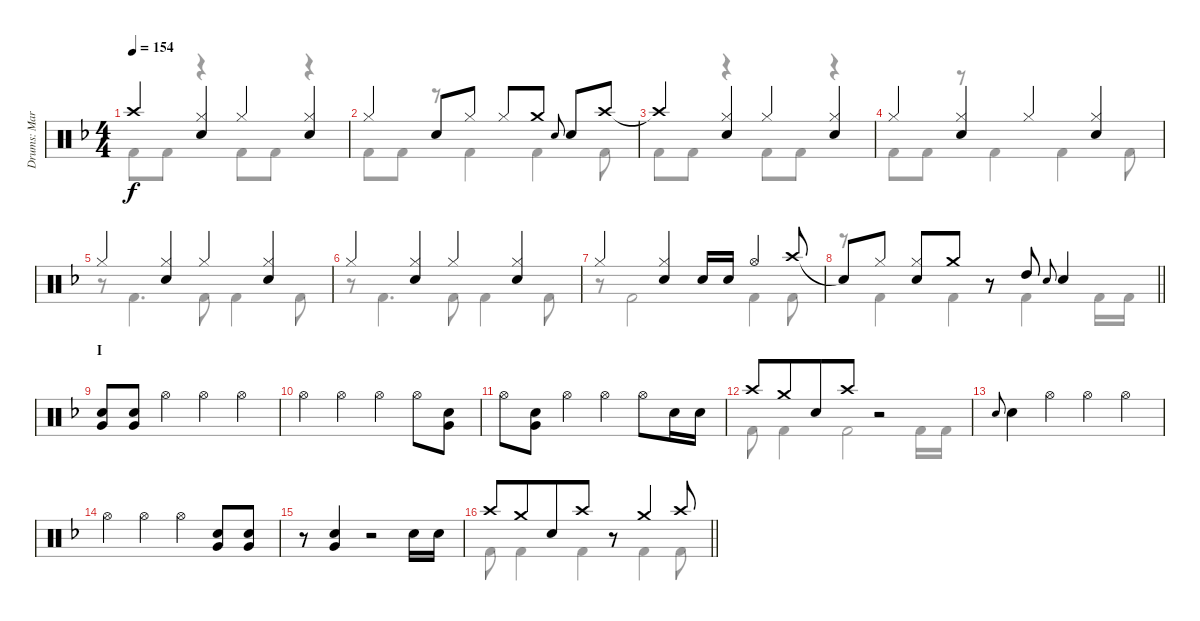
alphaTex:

\track ("Drums: Mark" "Drums: Mar") {instrument percussion}
\staff {score}
\articulation defaults
\voice
\ts (4 4)
\tempo 154
\clef neutral
\ks f "Crash high (hit)".4{dy f}
("Hi-Hat (closed)" "Snare (hit) 2").4 "Hi-Hat (closed)".4 ("Hi-Hat (closed)" "Snare (hit) 2").4 |
"Hi-Hat (closed)".4 "Snare (hit) 2".8{beam merge} "Hi-Hat (closed)".8 "Hi-Hat (closed)".8 "Crash medium (hit)".8 "Electric Snare (hit)".8{gr onbeat beam merge} "Snare (hit) 2".8 "Crash high (hit)".8 |
"Crash high (hit)"{t}.4 ("Hi-Hat (closed)" "Snare (hit) 2").4 "Hi-Hat (closed)".4 ("Hi-Hat (closed)" "Snare (hit) 2").4 |
"Hi-Hat (closed)".4 ("Hi-Hat (closed)" "Snare (hit) 2").4 "Hi-Hat (closed)".4 ("Hi-Hat (closed)" "Snare (hit) 2").4 |
"Hi-Hat (closed)".4 ("Hi-Hat (closed)" "Snare (hit) 2").4 "Hi-Hat (closed)".4 ("Hi-Hat (closed)" "Snare (hit) 2").4 |
"Hi-Hat (closed)".4 ("Hi-Hat (closed)" "Snare (hit) 2").4 "Hi-Hat (closed)".4 ("Hi-Hat (closed)" "Snare (hit) 2").4 |
"Hi-Hat (closed)".4 ("Hi-Hat (closed)" "Snare (hit) 2").4 "Snare (hit) 2".16 "Snare (hit) 2".16 "Hi-Hat (open)".4 "Crash high (hit)".8 |
\barLineRight lightlight "Snare (hit)"{t}.8 "Hi-Hat (closed)".8
("Hi-Hat (closed)" "Snare (hit) 2").8 "Crash medium (hit)".8 r.8 "High Tom (hit)".8 "Electric Snare (hit)".8{gr onbeat} "Snare (hit) 2".4 |
\section ("" "I")
("Snare (hit) 2" "Very Low Tom (hit)").8 ("Snare (hit) 2" "Very Low Tom (hit)").8 "Hi-Hat (open)".4 "Hi-Hat (open)".4 "Hi-Hat (open)".4 |
"Hi-Hat (open)".4 "Hi-Hat (open)".4 "Hi-Hat (open)".4 "Hi-Hat (open)".8 ("Snare (hit) 2" "Very Low Tom (hit)").8 |
"Hi-Hat (open)".8 ("Snare (hit) 2" "Very Low Tom (hit)").8 "Hi-Hat (open)".4 "Hi-Hat (open)".4 "Hi-Hat (open)".8 "Snare (hit) 2".16 "Snare (hit) 2".16 |
"Crash high (hit)".8 "Crash medium (hit)".8{beam merge} "Snare (hit) 2".8 "Crash high (hit)".8 r.2 |
"Electric Snare (hit)".8{gr onbeat} "Snare (hit) 2".4 "Hi-Hat (open)".4 "Hi-Hat (open)".4 "Hi-Hat (open)".4 |
"Hi-Hat (open)".4 "Hi-Hat (open)".4 "Hi-Hat (open)".4 ("Snare (hit) 2" "Very Low Tom (hit)").8 ("Snare (hit) 2" "Very Low Tom (hit)").8 |
r.8 ("Snare (hit) 2" "Very Low Tom (hit)").4 r.2 "Snare (hit) 2".16 "Snare (hit) 2".16 |
\barLineRight lightlight "Crash high (hit)".8 "Crash medium (hit)".8{beam merge} "Snare (hit) 2".8 "Crash high (hit)".8
r.8 "Crash medium (hit)".4 "Crash high (hit)".8
\voice
\clef neutral
\ottava regular
\simile none
\ks f "Kick (hit) 2".8{dy f} "Kick (hit) 2".8
r.4 "Kick (hit) 2".8 "Kick (hit) 2".8 r.4 |
"Kick (hit) 2".8 "Kick (hit) 2".8 r.8 "Kick (hit) 2".4 "Kick (hit) 2".4 "Kick (hit) 2".8 |
"Kick (hit) 2".8 "Kick (hit) 2".8 r.4 "Kick (hit) 2".8 "Kick (hit) 2".8 r.4 |
"Kick (hit) 2".8 "Kick (hit) 2".8 r.8 "Kick (hit) 2".4 "Kick (hit) 2".4 "Kick (hit) 2".8 |
r.8 "Kick (hit) 2".4{d} "Kick (hit) 2".8 "Kick (hit) 2".4 "Kick (hit) 2".8 |
r.8 "Kick (hit) 2".4{d} "Kick (hit) 2".8 "Kick (hit) 2".4 "Kick (hit) 2".8 |
r.8 "Kick (hit) 2".2 "Kick (hit) 2".4 "Kick (hit) 2".8 |
\barLineRight lightlight
r.8 "Kick (hit) 2".4 "Kick (hit) 2".4 "Kick (hit) 2".4 "Kick (hit) 2".16 "Kick (hit) 2".16 |
|
|
|
"Kick (hit) 2".8 "Kick (hit) 2".4 "Kick (hit) 2".2 "Kick (hit) 2".16 "Kick (hit) 2".16 |
|
|
|
\barLineRight lightlight "Kick (hit) 2".8 "Kick (hit) 2".4 "Kick (hit) 2".4 "Kick (hit) 2".4 "Kick (hit) 2".8
